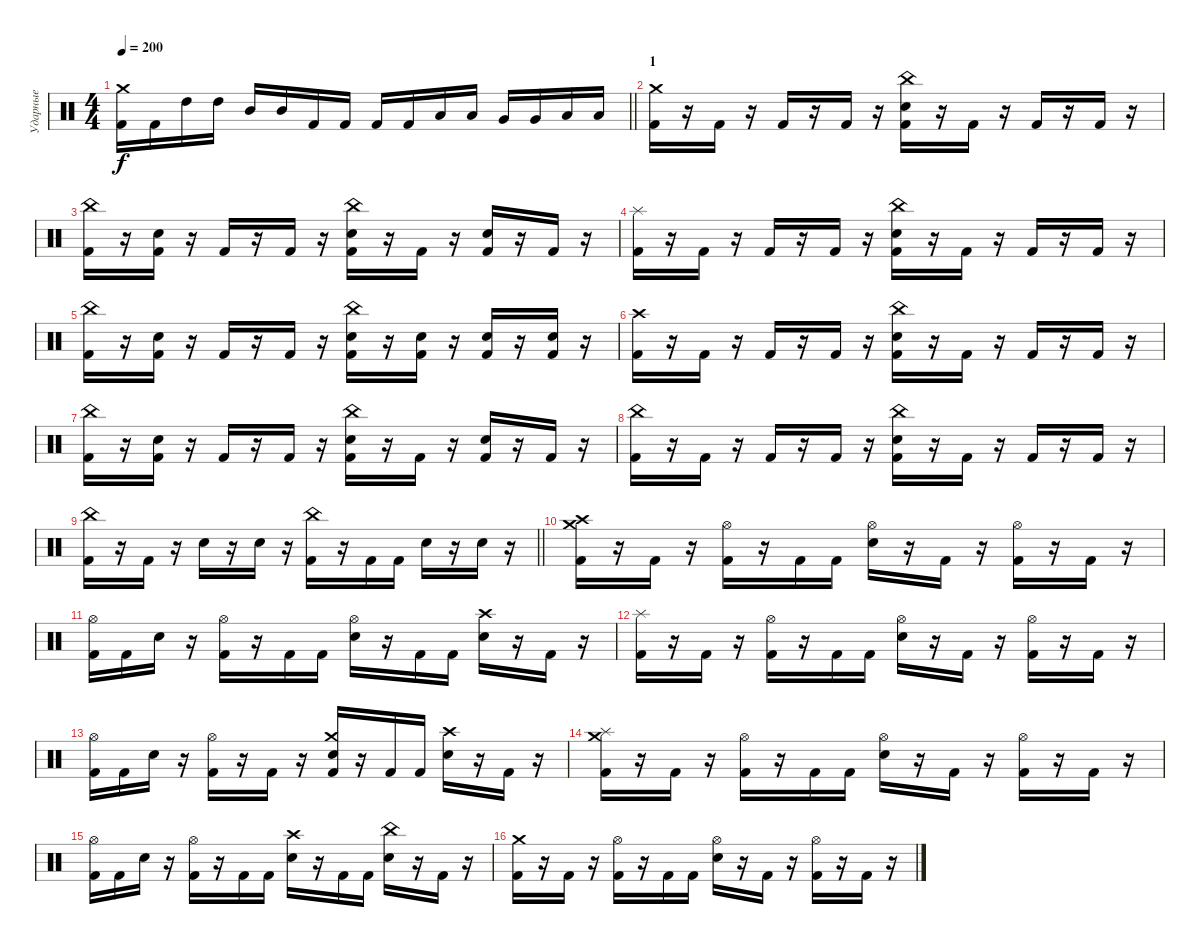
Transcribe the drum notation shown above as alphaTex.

\track ("Ударные" "Ударные") {instrument percussion}
\staff {score}
\articulation defaults
\ts (4 4)
\tempo 200
\clef neutral
\barLineRight lightlight
\ks c
("Kick (hit) 2" "Crash medium (hit)").16{dy f} "Kick (hit) 2".16 "High Tom (hit)".16 "High Tom (hit)".16 "Mid Tom (hit)".16 "Mid Tom (hit)".16 "Kick (hit) 2".16 "Kick (hit) 2".16 "Kick (hit) 2".16 "Kick (hit) 2".16 "Low Tom (hit)".16 "Low Tom (hit)".16 "Very Low Tom (hit)".16 "Very Low Tom (hit)".16 "Low Floor Tom (hit)".16 "Low Floor Tom (hit)".16 |
\section ("" "1")
("Kick (hit) 2" "Crash medium (hit)").16 r.16 "Kick (hit) 2".16 r.16 "Kick (hit) 2".16 r.16 "Kick (hit) 2".16 r.16 ("Kick (hit) 2" "Electric Snare (hit)" "China (hit)").16 r.16 "Kick (hit) 2".16 r.16 "Kick (hit) 2".16 r.16 "Kick (hit) 2".16 r.16 |
("Kick (hit) 2" "China (hit)").16 r.16 ("Kick (hit) 2" "Electric Snare (hit)").16 r.16 "Kick (hit) 2".16 r.16 "Kick (hit) 2".16 r.16 ("Kick (hit) 2" "Electric Snare (hit)" "China (hit)").16 r.16 "Kick (hit) 2".16 r.16 ("Kick (hit) 2" "Electric Snare (hit)").16 r.16 "Kick (hit) 2".16 r.16 |
("Kick (hit) 2" "Splash (hit)").16 r.16 "Kick (hit) 2".16 r.16 "Kick (hit) 2".16 r.16 "Kick (hit) 2".16 r.16 ("Kick (hit) 2" "Electric Snare (hit)" "China (hit)").16 r.16 "Kick (hit) 2".16 r.16 "Kick (hit) 2".16 r.16 "Kick (hit) 2".16 r.16 |
("Kick (hit) 2" "China (hit)").16 r.16 ("Kick (hit) 2" "Electric Snare (hit)").16 r.16 "Kick (hit) 2".16 r.16 "Kick (hit) 2".16 r.16 ("Kick (hit) 2" "Electric Snare (hit)" "China (hit)").16 r.16 ("Kick (hit) 2" "Electric Snare (hit)").16 r.16 ("Kick (hit) 2" "Electric Snare (hit)").16 r.16 ("Kick (hit) 2" "Electric Snare (hit)").16 r.16 |
("Kick (hit) 2" "Crash high (hit)").16 r.16 "Kick (hit) 2".16 r.16 "Kick (hit) 2".16 r.16 "Kick (hit) 2".16 r.16 ("Kick (hit) 2" "Electric Snare (hit)" "China (hit)").16 r.16 "Kick (hit) 2".16 r.16 "Kick (hit) 2".16 r.16 "Kick (hit) 2".16 r.16 |
("Kick (hit) 2" "China (hit)").16 r.16 ("Kick (hit) 2" "Electric Snare (hit)").16 r.16 "Kick (hit) 2".16 r.16 "Kick (hit) 2".16 r.16 ("Kick (hit) 2" "Electric Snare (hit)" "China (hit)").16 r.16 "Kick (hit) 2".16 r.16 ("Kick (hit) 2" "Electric Snare (hit)").16 r.16 "Kick (hit) 2".16 r.16 |
("Kick (hit) 2" "China (hit)").16 r.16 "Kick (hit) 2".16 r.16 "Kick (hit) 2".16 r.16 "Kick (hit) 2".16 r.16 ("Kick (hit) 2" "Electric Snare (hit)" "China (hit)").16 r.16 "Kick (hit) 2".16 r.16 "Kick (hit) 2".16 r.16 "Kick (hit) 2".16 r.16 |
\barLineRight lightlight
("Kick (hit) 2" "China (hit)").16 r.16 "Kick (hit) 2".16 r.16 "Electric Snare (hit)".16 r.16 "Electric Snare (hit)".16 r.16 ("Kick (hit) 2" "China (hit)").16 r.16 "Kick (hit) 2".16 "Kick (hit) 2".16 "Electric Snare (hit)".16 r.16 "Electric Snare (hit)".16 r.16 |
("Kick (hit) 2" "Crash high (hit)" "Crash medium (hit)").16 r.16 "Kick (hit) 2".16 r.16 ("Kick (hit) 2" "Hi-Hat (open)").16 r.16 "Kick (hit) 2".16 "Kick (hit) 2".16 ("Electric Snare (hit)" "Hi-Hat (open)").16 r.16 "Kick (hit) 2".16 r.16 ("Kick (hit) 2" "Hi-Hat (open)").16 r.16 "Kick (hit) 2".16 r.16 |
("Kick (hit) 2" "Hi-Hat (open)").16 "Kick (hit) 2".16 "Electric Snare (hit)".16 r.16 ("Kick (hit) 2" "Hi-Hat (open)").16 r.16 "Kick (hit) 2".16 "Kick (hit) 2".16 ("Electric Snare (hit)" "Hi-Hat (open)").16 r.16 "Kick (hit) 2".16 "Kick (hit) 2".16 ("Electric Snare (hit)" "Crash high (hit)").16 r.16 "Kick (hit) 2".16 r.16 |
("Kick (hit) 2" "Splash (hit)").16 r.16 "Kick (hit) 2".16 r.16 ("Kick (hit) 2" "Hi-Hat (open)").16 r.16 "Kick (hit) 2".16 "Kick (hit) 2".16 ("Electric Snare (hit)" "Hi-Hat (open)").16 r.16 "Kick (hit) 2".16 r.16 ("Kick (hit) 2" "Hi-Hat (open)").16 r.16 "Kick (hit) 2".16 r.16 |
("Kick (hit) 2" "Hi-Hat (open)").16 "Kick (hit) 2".16 "Electric Snare (hit)".16 r.16 ("Kick (hit) 2" "Hi-Hat (open)").16 r.16 "Kick (hit) 2".16 r.16 ("Kick (hit) 2" "Electric Snare (hit)" "Crash medium (hit)").16 r.16 "Kick (hit) 2".16 "Kick (hit) 2".16 ("Electric Snare (hit)" "Crash high (hit)").16 r.16 "Kick (hit) 2".16 r.16 |
("Kick (hit) 2" "Splash (hit)" "Crash medium (hit)").16 r.16 "Kick (hit) 2".16 r.16 ("Kick (hit) 2" "Hi-Hat (open)").16 r.16 "Kick (hit) 2".16 "Kick (hit) 2".16 ("Electric Snare (hit)" "Hi-Hat (open)").16 r.16 "Kick (hit) 2".16 r.16 ("Kick (hit) 2" "Hi-Hat (open)").16 r.16 "Kick (hit) 2".16 r.16 |
("Kick (hit) 2" "Hi-Hat (open)").16 "Kick (hit) 2".16 "Electric Snare (hit)".16 r.16 ("Kick (hit) 2" "Hi-Hat (open)").16 r.16 "Kick (hit) 2".16 "Kick (hit) 2".16 ("Electric Snare (hit)" "Crash high (hit)").16 r.16 "Kick (hit) 2".16 "Kick (hit) 2".16 ("Electric Snare (hit)" "China (hit)").16 r.16 "Kick (hit) 2".16 r.16 |
("Kick (hit) 2" "Crash medium (hit)").16 r.16 "Kick (hit) 2".16 r.16 ("Kick (hit) 2" "Hi-Hat (open)").16 r.16 "Kick (hit) 2".16 "Kick (hit) 2".16 ("Electric Snare (hit)" "Hi-Hat (open)").16 r.16 "Kick (hit) 2".16 r.16 ("Kick (hit) 2" "Hi-Hat (open)").16 r.16 "Kick (hit) 2".16 r.16
